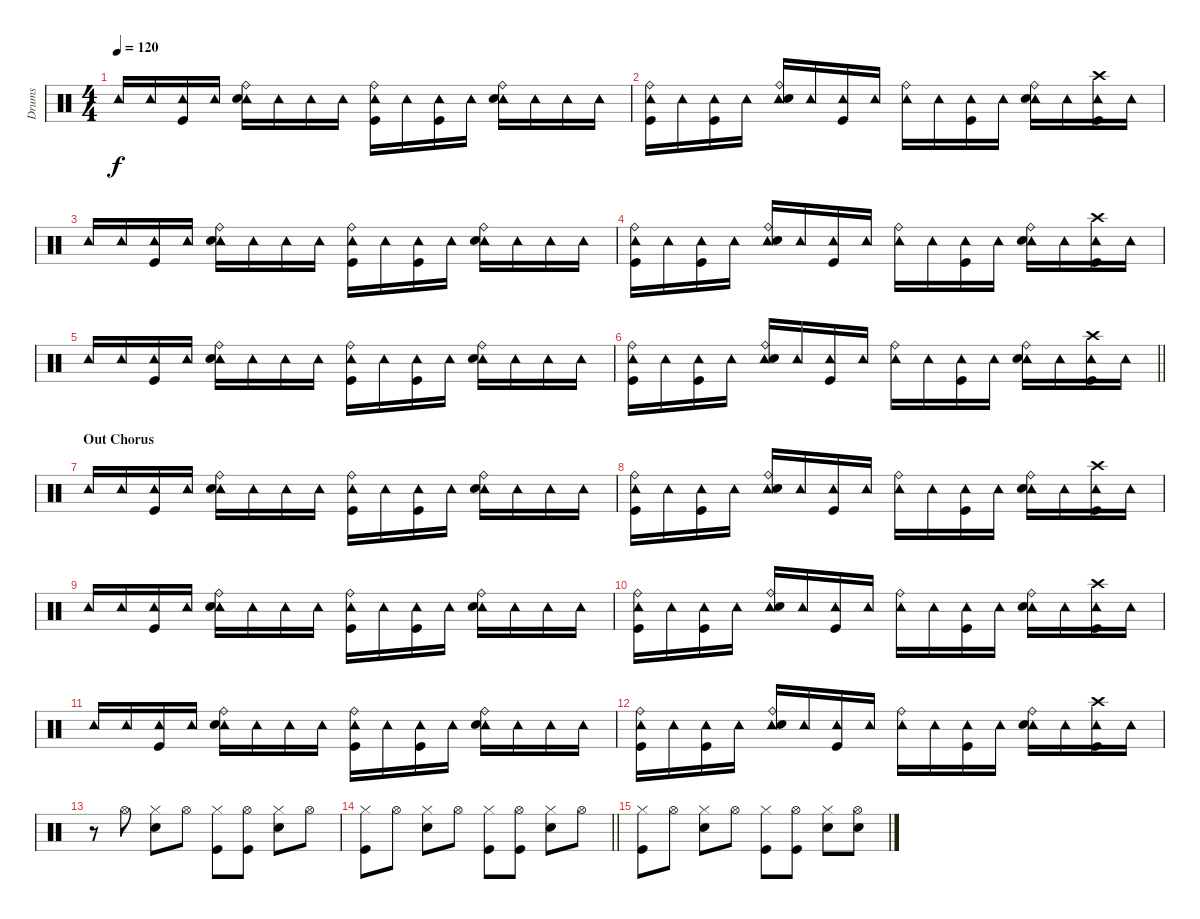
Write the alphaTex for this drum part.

\track ("Drums" "Drums") {instrument percussion}
\staff {score}
\articulation defaults
\ts (4 4)
\tempo 120
\clef neutral
\ks c "Tambourine (hit)".16{dy f} "Tambourine (hit)".16
("Tambourine (hit)" "Kick (hit)").16 "Tambourine (hit)".16 ("Tambourine (hit)" "Ride (bell)" "Snare (hit) 2").16 "Tambourine (hit)".16 "Tambourine (hit)".16 "Tambourine (hit)".16 ("Tambourine (hit)" "Ride (bell)" "Kick (hit)").16 "Tambourine (hit)".16 ("Tambourine (hit)" "Kick (hit)").16 "Tambourine (hit)".16 ("Tambourine (hit)" "Ride (bell)" "Snare (hit) 2").16 "Tambourine (hit)".16 "Tambourine (hit)".16 "Tambourine (hit)".16 |
("Tambourine (hit)" "Ride (bell)" "Kick (hit)").16 "Tambourine (hit)".16 ("Tambourine (hit)" "Kick (hit)").16 "Tambourine (hit)".16 ("Tambourine (hit)" "Ride (bell)" "Snare (hit) 2").16 "Tambourine (hit)".16 ("Tambourine (hit)" "Kick (hit)").16 "Tambourine (hit)".16 ("Tambourine (hit)" "Ride (bell)").16 "Tambourine (hit)".16 ("Tambourine (hit)" "Kick (hit)").16 "Tambourine (hit)".16 ("Tambourine (hit)" "Ride (bell)" "Snare (hit) 2").16 "Tambourine (hit)".16 ("Tambourine (hit)" "Crash high (hit)" "Kick (hit)").16 "Tambourine (hit)".16 |
"Tambourine (hit)".16 "Tambourine (hit)".16 ("Tambourine (hit)" "Kick (hit)").16 "Tambourine (hit)".16 ("Tambourine (hit)" "Ride (bell)" "Snare (hit) 2").16 "Tambourine (hit)".16 "Tambourine (hit)".16 "Tambourine (hit)".16 ("Tambourine (hit)" "Ride (bell)" "Kick (hit)").16 "Tambourine (hit)".16 ("Tambourine (hit)" "Kick (hit)").16 "Tambourine (hit)".16 ("Tambourine (hit)" "Ride (bell)" "Snare (hit) 2").16 "Tambourine (hit)".16 "Tambourine (hit)".16 "Tambourine (hit)".16 |
("Tambourine (hit)" "Ride (bell)" "Kick (hit)").16 "Tambourine (hit)".16 ("Tambourine (hit)" "Kick (hit)").16 "Tambourine (hit)".16 ("Tambourine (hit)" "Ride (bell)" "Snare (hit) 2").16 "Tambourine (hit)".16 ("Tambourine (hit)" "Kick (hit)").16 "Tambourine (hit)".16 ("Tambourine (hit)" "Ride (bell)").16 "Tambourine (hit)".16 ("Tambourine (hit)" "Kick (hit)").16 "Tambourine (hit)".16 ("Tambourine (hit)" "Ride (bell)" "Snare (hit) 2").16 "Tambourine (hit)".16 ("Tambourine (hit)" "Crash high (hit)" "Kick (hit)").16 "Tambourine (hit)".16 |
"Tambourine (hit)".16 "Tambourine (hit)".16 ("Tambourine (hit)" "Kick (hit)").16 "Tambourine (hit)".16 ("Tambourine (hit)" "Ride (bell)" "Snare (hit) 2").16 "Tambourine (hit)".16 "Tambourine (hit)".16 "Tambourine (hit)".16 ("Tambourine (hit)" "Ride (bell)" "Kick (hit)").16 "Tambourine (hit)".16 ("Tambourine (hit)" "Kick (hit)").16 "Tambourine (hit)".16 ("Tambourine (hit)" "Ride (bell)" "Snare (hit) 2").16 "Tambourine (hit)".16 "Tambourine (hit)".16 "Tambourine (hit)".16 |
\barLineRight lightlight
("Tambourine (hit)" "Ride (bell)" "Kick (hit)").16 "Tambourine (hit)".16 ("Tambourine (hit)" "Kick (hit)").16 "Tambourine (hit)".16 ("Tambourine (hit)" "Ride (bell)" "Snare (hit) 2").16 "Tambourine (hit)".16 ("Tambourine (hit)" "Kick (hit)").16 "Tambourine (hit)".16 ("Tambourine (hit)" "Ride (bell)").16 "Tambourine (hit)".16 ("Tambourine (hit)" "Kick (hit)").16 "Tambourine (hit)".16 ("Tambourine (hit)" "Ride (bell)" "Snare (hit) 2").16 "Tambourine (hit)".16 ("Tambourine (hit)" "Crash high (hit)" "Kick (hit)").16 "Tambourine (hit)".16 |
\section ("" "Out Chorus")
"Tambourine (hit)".16 "Tambourine (hit)".16 ("Tambourine (hit)" "Kick (hit)").16 "Tambourine (hit)".16 ("Tambourine (hit)" "Ride (bell)" "Snare (hit) 2").16 "Tambourine (hit)".16 "Tambourine (hit)".16 "Tambourine (hit)".16 ("Tambourine (hit)" "Ride (bell)" "Kick (hit)").16 "Tambourine (hit)".16 ("Tambourine (hit)" "Kick (hit)").16 "Tambourine (hit)".16 ("Tambourine (hit)" "Ride (bell)" "Snare (hit) 2").16 "Tambourine (hit)".16 "Tambourine (hit)".16 "Tambourine (hit)".16 |
("Tambourine (hit)" "Ride (bell)" "Kick (hit)").16 "Tambourine (hit)".16 ("Tambourine (hit)" "Kick (hit)").16 "Tambourine (hit)".16 ("Tambourine (hit)" "Ride (bell)" "Snare (hit) 2").16 "Tambourine (hit)".16 ("Tambourine (hit)" "Kick (hit)").16 "Tambourine (hit)".16 ("Tambourine (hit)" "Ride (bell)").16 "Tambourine (hit)".16 ("Tambourine (hit)" "Kick (hit)").16 "Tambourine (hit)".16 ("Tambourine (hit)" "Ride (bell)" "Snare (hit) 2").16 "Tambourine (hit)".16 ("Tambourine (hit)" "Crash high (hit)" "Kick (hit)").16 "Tambourine (hit)".16 |
"Tambourine (hit)".16 "Tambourine (hit)".16 ("Tambourine (hit)" "Kick (hit)").16 "Tambourine (hit)".16 ("Tambourine (hit)" "Ride (bell)" "Snare (hit) 2").16 "Tambourine (hit)".16 "Tambourine (hit)".16 "Tambourine (hit)".16 ("Tambourine (hit)" "Ride (bell)" "Kick (hit)").16 "Tambourine (hit)".16 ("Tambourine (hit)" "Kick (hit)").16 "Tambourine (hit)".16 ("Tambourine (hit)" "Ride (bell)" "Snare (hit) 2").16 "Tambourine (hit)".16 "Tambourine (hit)".16 "Tambourine (hit)".16 |
("Tambourine (hit)" "Ride (bell)" "Kick (hit)").16 "Tambourine (hit)".16 ("Tambourine (hit)" "Kick (hit)").16 "Tambourine (hit)".16 ("Tambourine (hit)" "Ride (bell)" "Snare (hit) 2").16 "Tambourine (hit)".16 ("Tambourine (hit)" "Kick (hit)").16 "Tambourine (hit)".16 ("Tambourine (hit)" "Ride (bell)").16 "Tambourine (hit)".16 ("Tambourine (hit)" "Kick (hit)").16 "Tambourine (hit)".16 ("Tambourine (hit)" "Ride (bell)" "Snare (hit) 2").16 "Tambourine (hit)".16 ("Tambourine (hit)" "Crash high (hit)" "Kick (hit)").16 "Tambourine (hit)".16 |
"Tambourine (hit)".16 "Tambourine (hit)".16 ("Tambourine (hit)" "Kick (hit)").16 "Tambourine (hit)".16 ("Tambourine (hit)" "Ride (bell)" "Snare (hit) 2").16 "Tambourine (hit)".16 "Tambourine (hit)".16 "Tambourine (hit)".16 ("Tambourine (hit)" "Ride (bell)" "Kick (hit)").16 "Tambourine (hit)".16 ("Tambourine (hit)" "Kick (hit)").16 "Tambourine (hit)".16 ("Tambourine (hit)" "Ride (bell)" "Snare (hit) 2").16 "Tambourine (hit)".16 "Tambourine (hit)".16 "Tambourine (hit)".16 |
("Tambourine (hit)" "Ride (bell)" "Kick (hit)").16 "Tambourine (hit)".16 ("Tambourine (hit)" "Kick (hit)").16 "Tambourine (hit)".16 ("Tambourine (hit)" "Ride (bell)" "Snare (hit) 2").16 "Tambourine (hit)".16 ("Tambourine (hit)" "Kick (hit)").16 "Tambourine (hit)".16 ("Tambourine (hit)" "Ride (bell)").16 "Tambourine (hit)".16 ("Tambourine (hit)" "Kick (hit)").16 "Tambourine (hit)".16 ("Tambourine (hit)" "Ride (bell)" "Snare (hit) 2").16 "Tambourine (hit)".16 ("Tambourine (hit)" "Crash high (hit)" "Kick (hit)").16 "Tambourine (hit)".16 |
r.8 "Hi-Hat (open)".8 ("Hi-Hat (closed)" "Snare (hit) 2").8 "Hi-Hat (open)".8 ("Hi-Hat (closed)" "Kick (hit)").8 ("Hi-Hat (open)" "Kick (hit)").8 ("Hi-Hat (closed)" "Snare (hit) 2").8 "Hi-Hat (open)".8 |
\barLineRight lightlight
("Hi-Hat (closed)" "Kick (hit)").8 "Hi-Hat (open)".8 ("Hi-Hat (closed)" "Snare (hit) 2").8 "Hi-Hat (open)".8 ("Hi-Hat (closed)" "Kick (hit)").8 ("Hi-Hat (open)" "Kick (hit)").8 ("Hi-Hat (closed)" "Snare (hit) 2").8 "Hi-Hat (open)".8 |
("Hi-Hat (closed)" "Kick (hit)").8 "Hi-Hat (open)".8 ("Hi-Hat (closed)" "Snare (hit) 2").8 "Hi-Hat (open)".8 ("Hi-Hat (closed)" "Kick (hit)").8 ("Hi-Hat (open)" "Kick (hit)").8 ("Hi-Hat (closed)" "Snare (hit) 2").8 ("Hi-Hat (open)" "Snare (hit) 2").8
